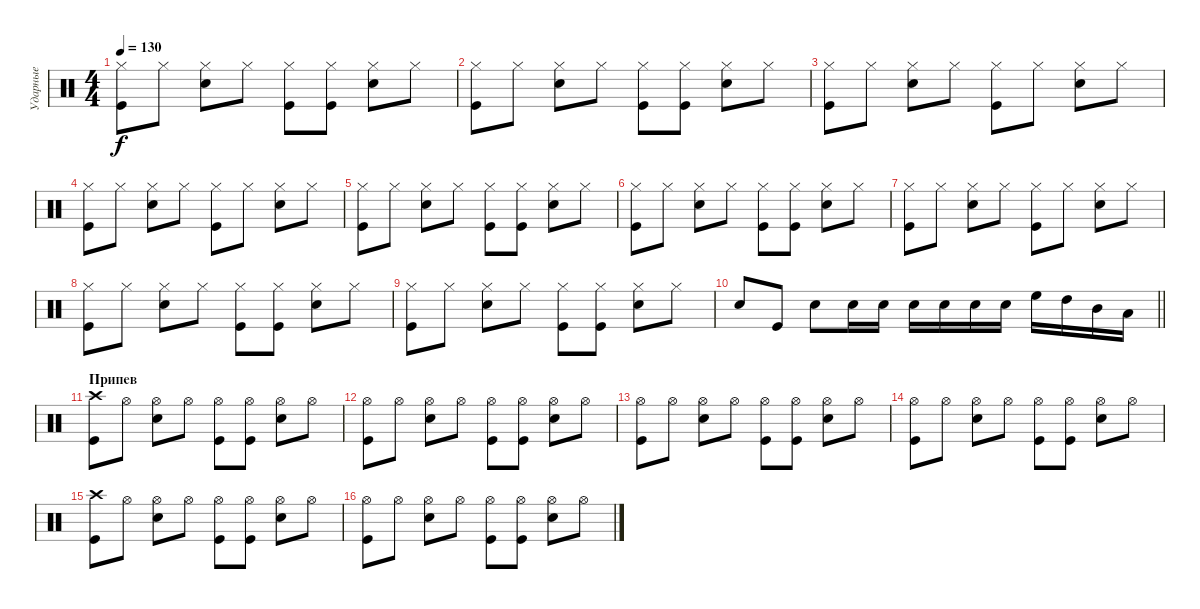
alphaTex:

\track ("Ударные" "Ударные") {instrument percussion}
\staff {score}
\articulation defaults
\ts (4 4)
\tempo 130
\clef neutral
\ks c
("Hi-Hat (closed)" "Kick (hit)").8{dy f} "Hi-Hat (closed)".8 ("Hi-Hat (closed)" "Snare (hit) 2").8 "Hi-Hat (closed)".8 ("Hi-Hat (closed)" "Kick (hit)").8 ("Hi-Hat (closed)" "Kick (hit)").8 ("Hi-Hat (closed)" "Snare (hit) 2").8 "Hi-Hat (closed)".8 |
("Hi-Hat (closed)" "Kick (hit)").8 "Hi-Hat (closed)".8 ("Hi-Hat (closed)" "Snare (hit) 2").8 "Hi-Hat (closed)".8 ("Hi-Hat (closed)" "Kick (hit)").8 ("Hi-Hat (closed)" "Kick (hit)").8 ("Hi-Hat (closed)" "Snare (hit) 2").8 "Hi-Hat (closed)".8 |
("Hi-Hat (closed)" "Kick (hit)").8 "Hi-Hat (closed)".8 ("Hi-Hat (closed)" "Snare (hit) 2").8 "Hi-Hat (closed)".8 ("Hi-Hat (closed)" "Kick (hit)").8 "Hi-Hat (closed)".8 ("Hi-Hat (closed)" "Snare (hit) 2").8 "Hi-Hat (closed)".8 |
("Hi-Hat (closed)" "Kick (hit)").8 "Hi-Hat (closed)".8 ("Hi-Hat (closed)" "Snare (hit) 2").8 "Hi-Hat (closed)".8 ("Hi-Hat (closed)" "Kick (hit)").8 "Hi-Hat (closed)".8 ("Hi-Hat (closed)" "Snare (hit) 2").8 "Hi-Hat (closed)".8 |
("Hi-Hat (closed)" "Kick (hit)").8 "Hi-Hat (closed)".8 ("Hi-Hat (closed)" "Snare (hit) 2").8 "Hi-Hat (closed)".8 ("Hi-Hat (closed)" "Kick (hit)").8 ("Hi-Hat (closed)" "Kick (hit)").8 ("Hi-Hat (closed)" "Snare (hit) 2").8 "Hi-Hat (closed)".8 |
("Hi-Hat (closed)" "Kick (hit)").8 "Hi-Hat (closed)".8 ("Hi-Hat (closed)" "Snare (hit) 2").8 "Hi-Hat (closed)".8 ("Hi-Hat (closed)" "Kick (hit)").8 ("Hi-Hat (closed)" "Kick (hit)").8 ("Hi-Hat (closed)" "Snare (hit) 2").8 "Hi-Hat (closed)".8 |
("Hi-Hat (closed)" "Kick (hit)").8 "Hi-Hat (closed)".8 ("Hi-Hat (closed)" "Snare (hit) 2").8 "Hi-Hat (closed)".8 ("Hi-Hat (closed)" "Kick (hit)").8 "Hi-Hat (closed)".8 ("Hi-Hat (closed)" "Snare (hit) 2").8 "Hi-Hat (closed)".8 |
("Hi-Hat (closed)" "Kick (hit)").8 "Hi-Hat (closed)".8 ("Hi-Hat (closed)" "Snare (hit) 2").8 "Hi-Hat (closed)".8 ("Hi-Hat (closed)" "Kick (hit)").8 ("Hi-Hat (closed)" "Kick (hit)").8 ("Hi-Hat (closed)" "Snare (hit) 2").8 "Hi-Hat (closed)".8 |
("Hi-Hat (closed)" "Kick (hit)").8 "Hi-Hat (closed)".8 ("Hi-Hat (closed)" "Snare (hit) 2").8 "Hi-Hat (closed)".8 ("Hi-Hat (closed)" "Kick (hit)").8 ("Hi-Hat (closed)" "Kick (hit)").8 ("Hi-Hat (closed)" "Snare (hit) 2").8 "Hi-Hat (closed)".8 |
\barLineRight lightlight "Snare (hit) 2".8 "Kick (hit)".8 "Snare (hit) 2".8 "Snare (hit) 2".16 "Snare (hit) 2".16 "Snare (hit) 2".16 "Snare (hit) 2".16 "Snare (hit) 2".16 "Snare (hit) 2".16 "High Floor Tom (hit)".16 "High Tom (hit)".16 "Mid Tom (hit)".16 "Low Tom (hit)".16
|
\section ("" "Припев")
("Crash high (hit)" "Kick (hit)").8 "Hi-Hat (open)".8 ("Hi-Hat (open)" "Snare (hit) 2").8 "Hi-Hat (open)".8 ("Hi-Hat (open)" "Kick (hit)").8 ("Hi-Hat (open)" "Kick (hit)").8 ("Hi-Hat (open)" "Snare (hit) 2").8 "Hi-Hat (open)".8 |
("Hi-Hat (open)" "Kick (hit)").8 "Hi-Hat (open)".8 ("Hi-Hat (open)" "Snare (hit) 2").8 "Hi-Hat (open)".8 ("Hi-Hat (open)" "Kick (hit)").8 ("Hi-Hat (open)" "Kick (hit)").8 ("Hi-Hat (open)" "Snare (hit) 2").8 "Hi-Hat (open)".8 |
("Hi-Hat (open)" "Kick (hit)").8 "Hi-Hat (open)".8 ("Hi-Hat (open)" "Snare (hit) 2").8 "Hi-Hat (open)".8 ("Hi-Hat (open)" "Kick (hit)").8 ("Hi-Hat (open)" "Kick (hit)").8 ("Hi-Hat (open)" "Snare (hit) 2").8 "Hi-Hat (open)".8 |
("Hi-Hat (open)" "Kick (hit)").8 "Hi-Hat (open)".8 ("Hi-Hat (open)" "Snare (hit) 2").8 "Hi-Hat (open)".8 ("Hi-Hat (open)" "Kick (hit)").8 ("Hi-Hat (open)" "Kick (hit)").8 ("Hi-Hat (open)" "Snare (hit) 2").8 "Hi-Hat (open)".8 |
("Crash high (hit)" "Kick (hit)").8 "Hi-Hat (open)".8 ("Hi-Hat (open)" "Snare (hit) 2").8 "Hi-Hat (open)".8 ("Hi-Hat (open)" "Kick (hit)").8 ("Hi-Hat (open)" "Kick (hit)").8 ("Hi-Hat (open)" "Snare (hit) 2").8 "Hi-Hat (open)".8 |
("Hi-Hat (open)" "Kick (hit)").8 "Hi-Hat (open)".8 ("Hi-Hat (open)" "Snare (hit) 2").8 "Hi-Hat (open)".8 ("Hi-Hat (open)" "Kick (hit)").8 ("Hi-Hat (open)" "Kick (hit)").8 ("Hi-Hat (open)" "Snare (hit) 2").8 "Hi-Hat (open)".8
